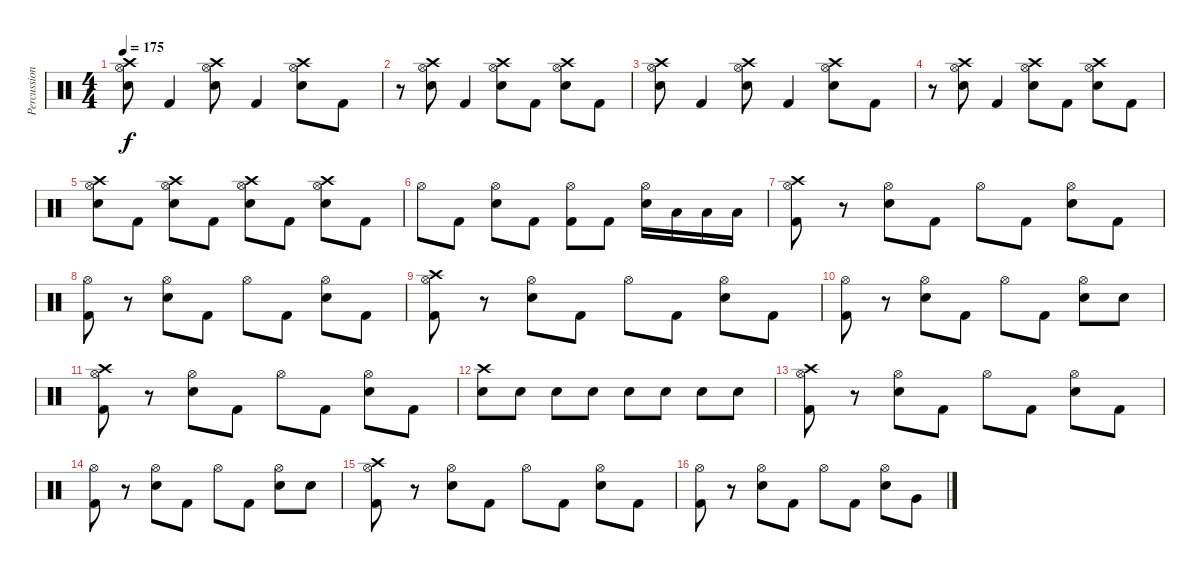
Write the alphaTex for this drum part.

\track ("Percussion" "Percussion") {instrument percussion}
\staff {score}
\articulation defaults
\ts (4 4)
\tempo 175
\clef neutral
\ks c
("Crash high (hit)" "Hi-Hat (open)" "Electric Snare (hit)").8{dy f} "Kick (hit) 2".4 ("Crash high (hit)" "Hi-Hat (open)" "Electric Snare (hit)").8 "Kick (hit) 2".4 ("Crash high (hit)" "Hi-Hat (open)" "Electric Snare (hit)").8 "Kick (hit) 2".8 |
r.8 ("Crash high (hit)" "Hi-Hat (open)" "Electric Snare (hit)").8 "Kick (hit) 2".4 ("Crash high (hit)" "Hi-Hat (open)" "Electric Snare (hit)").8 "Kick (hit) 2".8 ("Crash high (hit)" "Hi-Hat (open)" "Electric Snare (hit)").8 "Kick (hit) 2".8 |
("Crash high (hit)" "Hi-Hat (open)" "Electric Snare (hit)").8 "Kick (hit) 2".4 ("Crash high (hit)" "Hi-Hat (open)" "Electric Snare (hit)").8 "Kick (hit) 2".4 ("Crash high (hit)" "Hi-Hat (open)" "Electric Snare (hit)").8 "Kick (hit) 2".8 |
r.8 ("Crash high (hit)" "Hi-Hat (open)" "Electric Snare (hit)").8 "Kick (hit) 2".4 ("Crash high (hit)" "Hi-Hat (open)" "Electric Snare (hit)").8 "Kick (hit) 2".8 ("Crash high (hit)" "Hi-Hat (open)" "Electric Snare (hit)").8 "Kick (hit) 2".8 |
("Crash high (hit)" "Hi-Hat (open)" "Electric Snare (hit)").8 "Kick (hit) 2".8 ("Crash high (hit)" "Hi-Hat (open)" "Electric Snare (hit)").8 "Kick (hit) 2".8 ("Crash high (hit)" "Hi-Hat (open)" "Electric Snare (hit)").8 "Kick (hit) 2".8 ("Crash high (hit)" "Hi-Hat (open)" "Electric Snare (hit)").8 "Kick (hit) 2".8 |
"Hi-Hat (open)".8 "Kick (hit) 2".8 ("Hi-Hat (open)" "Electric Snare (hit)").8 "Kick (hit) 2".8 ("Hi-Hat (open)" "Kick (hit) 2").8 "Kick (hit) 2".8 ("Hi-Hat (open)" "Electric Snare (hit)").16 "Low Tom (hit)".16 "Low Tom (hit)".16 "Low Tom (hit)".16 |
("Crash high (hit)" "Hi-Hat (open)" "Kick (hit) 2").8 r.8 ("Hi-Hat (open)" "Electric Snare (hit)").8 "Kick (hit) 2".8 "Hi-Hat (open)".8 "Kick (hit) 2".8 ("Hi-Hat (open)" "Electric Snare (hit)").8 "Kick (hit) 2".8 |
("Hi-Hat (open)" "Kick (hit) 2").8 r.8 ("Hi-Hat (open)" "Electric Snare (hit)").8 "Kick (hit) 2".8 "Hi-Hat (open)".8 "Kick (hit) 2".8 ("Hi-Hat (open)" "Electric Snare (hit)").8 "Kick (hit) 2".8 |
("Crash high (hit)" "Hi-Hat (open)" "Kick (hit) 2").8 r.8 ("Hi-Hat (open)" "Electric Snare (hit)").8 "Kick (hit) 2".8 "Hi-Hat (open)".8 "Kick (hit) 2".8 ("Hi-Hat (open)" "Electric Snare (hit)").8 "Kick (hit) 2".8 |
("Hi-Hat (open)" "Kick (hit) 2").8 r.8 ("Hi-Hat (open)" "Electric Snare (hit)").8 "Kick (hit) 2".8 "Hi-Hat (open)".8 "Kick (hit) 2".8 ("Hi-Hat (open)" "Electric Snare (hit)").8 "Electric Snare (hit)".8 |
("Crash high (hit)" "Hi-Hat (open)" "Kick (hit) 2").8 r.8 ("Hi-Hat (open)" "Electric Snare (hit)").8 "Kick (hit) 2".8 "Hi-Hat (open)".8 "Kick (hit) 2".8 ("Hi-Hat (open)" "Electric Snare (hit)").8 "Kick (hit) 2".8 |
("Crash high (hit)" "Electric Snare (hit)").8 "Electric Snare (hit)".8 "Electric Snare (hit)".8 "Electric Snare (hit)".8 "Electric Snare (hit)".8 "Electric Snare (hit)".8 "Electric Snare (hit)".8 "Electric Snare (hit)".8 |
("Crash high (hit)" "Hi-Hat (open)" "Kick (hit) 2").8 r.8 ("Hi-Hat (open)" "Electric Snare (hit)").8 "Kick (hit) 2".8 "Hi-Hat (open)".8 "Kick (hit) 2".8 ("Hi-Hat (open)" "Electric Snare (hit)").8 "Kick (hit) 2".8 |
("Hi-Hat (open)" "Kick (hit) 2").8 r.8 ("Hi-Hat (open)" "Electric Snare (hit)").8 "Kick (hit) 2".8 "Hi-Hat (open)".8 "Kick (hit) 2".8 ("Hi-Hat (open)" "Electric Snare (hit)").8 "Electric Snare (hit)".8 |
("Crash high (hit)" "Hi-Hat (open)" "Kick (hit) 2").8 r.8 ("Hi-Hat (open)" "Electric Snare (hit)").8 "Kick (hit) 2".8 "Hi-Hat (open)".8 "Kick (hit) 2".8 ("Hi-Hat (open)" "Electric Snare (hit)").8 "Kick (hit) 2".8 |
("Hi-Hat (open)" "Kick (hit) 2").8 r.8 ("Hi-Hat (open)" "Electric Snare (hit)").8 "Kick (hit) 2".8 "Hi-Hat (open)".8 "Kick (hit) 2".8 ("Hi-Hat (open)" "Electric Snare (hit)").8 "Very Low Tom (hit)".8
